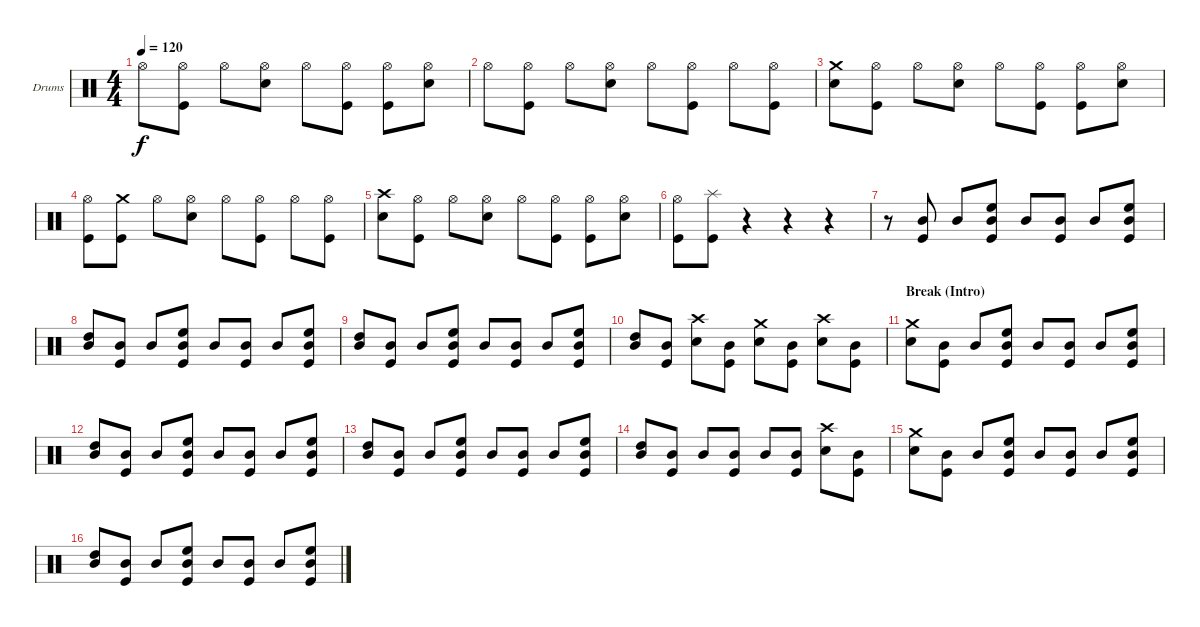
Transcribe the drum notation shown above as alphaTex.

\bracketExtendMode groupsimilarinstruments
\firstSystemTrackNameOrientation horizontal
\otherSystemsTrackNameOrientation horizontal
\track ("Drumkit" "Drums") {instrument percussion}
\staff {score}
\articulation defaults
\ts (4 4)
\tempo 120
\clef neutral
\ks c "Hi-Hat (open)".8{dy f}
("Hi-Hat (open)" "Kick (hit)").8 "Hi-Hat (open)".8 ("Hi-Hat (open)" "Snare (hit) 2").8 "Hi-Hat (open)".8 ("Hi-Hat (open)" "Kick (hit)").8 ("Hi-Hat (open)" "Kick (hit)").8 ("Hi-Hat (open)" "Snare (hit) 2").8 |
"Hi-Hat (open)".8 ("Hi-Hat (open)" "Kick (hit)").8 "Hi-Hat (open)".8 ("Hi-Hat (open)" "Snare (hit) 2").8 "Hi-Hat (open)".8 ("Hi-Hat (open)" "Kick (hit)").8 "Hi-Hat (open)".8 ("Hi-Hat (open)" "Kick (hit)").8 |
("Crash medium (hit)" "Snare (hit) 2").8 ("Hi-Hat (open)" "Kick (hit)").8 "Hi-Hat (open)".8 ("Hi-Hat (open)" "Snare (hit) 2").8 "Hi-Hat (open)".8 ("Hi-Hat (open)" "Kick (hit)").8 ("Hi-Hat (open)" "Kick (hit)").8 ("Hi-Hat (open)" "Snare (hit) 2").8 |
("Hi-Hat (open)" "Kick (hit)").8 ("Crash medium (hit)" "Kick (hit)").8 "Hi-Hat (open)".8 ("Hi-Hat (open)" "Snare (hit) 2").8 "Hi-Hat (open)".8 ("Hi-Hat (open)" "Kick (hit)").8 "Hi-Hat (open)".8 ("Hi-Hat (open)" "Kick (hit)").8 |
("Crash high (hit)" "Snare (hit) 2").8 ("Hi-Hat (open)" "Kick (hit)").8 "Hi-Hat (open)".8 ("Hi-Hat (open)" "Snare (hit) 2").8 "Hi-Hat (open)".8 ("Hi-Hat (open)" "Kick (hit)").8 ("Hi-Hat (open)" "Kick (hit)").8 ("Hi-Hat (open)" "Snare (hit) 2").8 |
("Hi-Hat (open)" "Kick (hit)").8 ("Splash (hit)" "Kick (hit)").8 r.4 r.4 r.4 |
r.8 ("Mid Tom (hit)" "Kick (hit)").8 "Mid Tom (hit)".8 ("High Floor Tom (hit)" "Mid Tom (hit)" "Kick (hit)").8 "Mid Tom (hit)".8 ("Mid Tom (hit)" "Kick (hit)").8 "Mid Tom (hit)".8 ("High Floor Tom (hit)" "Mid Tom (hit)" "Kick (hit)").8 |
("High Tom (hit)" "Mid Tom (hit)").8 ("Mid Tom (hit)" "Kick (hit)").8 "Mid Tom (hit)".8 ("High Floor Tom (hit)" "Mid Tom (hit)" "Kick (hit)").8 "Mid Tom (hit)".8 ("Mid Tom (hit)" "Kick (hit)").8 "Mid Tom (hit)".8 ("High Floor Tom (hit)" "Mid Tom (hit)" "Kick (hit)").8 |
("High Tom (hit)" "Mid Tom (hit)").8 ("Mid Tom (hit)" "Kick (hit)").8 "Mid Tom (hit)".8 ("High Floor Tom (hit)" "Mid Tom (hit)" "Kick (hit)").8 "Mid Tom (hit)".8 ("Mid Tom (hit)" "Kick (hit)").8 "Mid Tom (hit)".8 ("High Floor Tom (hit)" "Mid Tom (hit)" "Kick (hit)").8 |
("High Tom (hit)" "Mid Tom (hit)").8 ("Mid Tom (hit)" "Kick (hit)").8 ("Crash high (hit)" "Snare (hit) 2").8 ("Mid Tom (hit)" "Kick (hit)").8 ("Crash medium (hit)" "Snare (hit) 2").8 ("Mid Tom (hit)" "Kick (hit)").8 ("Crash high (hit)" "Snare (hit) 2").8 ("Mid Tom (hit)" "Kick (hit)").8 |
\section ("" "Break (Intro)")
("Crash medium (hit)" "Snare (hit) 2").8 ("Mid Tom (hit)" "Kick (hit)").8 "Mid Tom (hit)".8 ("High Floor Tom (hit)" "Mid Tom (hit)" "Kick (hit)").8 "Mid Tom (hit)".8 ("Mid Tom (hit)" "Kick (hit)").8 "Mid Tom (hit)".8 ("High Floor Tom (hit)" "Mid Tom (hit)" "Kick (hit)").8 |
("High Tom (hit)" "Mid Tom (hit)").8 ("Mid Tom (hit)" "Kick (hit)").8 "Mid Tom (hit)".8 ("High Floor Tom (hit)" "Mid Tom (hit)" "Kick (hit)").8 "Mid Tom (hit)".8 ("Mid Tom (hit)" "Kick (hit)").8 "Mid Tom (hit)".8 ("High Floor Tom (hit)" "Mid Tom (hit)" "Kick (hit)").8 |
("High Tom (hit)" "Mid Tom (hit)").8 ("Mid Tom (hit)" "Kick (hit)").8 "Mid Tom (hit)".8 ("High Floor Tom (hit)" "Mid Tom (hit)" "Kick (hit)").8 "Mid Tom (hit)".8 ("Mid Tom (hit)" "Kick (hit)").8 "Mid Tom (hit)".8 ("High Floor Tom (hit)" "Mid Tom (hit)" "Kick (hit)").8 |
("High Tom (hit)" "Mid Tom (hit)").8 ("Mid Tom (hit)" "Kick (hit)").8 "Mid Tom (hit)".8 ("Mid Tom (hit)" "Kick (hit)").8 "Mid Tom (hit)".8 ("Mid Tom (hit)" "Kick (hit)").8 ("Crash high (hit)" "Snare (hit) 2").8 ("Mid Tom (hit)" "Kick (hit)").8 |
("Crash medium (hit)" "Snare (hit) 2").8 ("Mid Tom (hit)" "Kick (hit)").8 "Mid Tom (hit)".8 ("High Floor Tom (hit)" "Mid Tom (hit)" "Kick (hit)").8 "Mid Tom (hit)".8 ("Mid Tom (hit)" "Kick (hit)").8 "Mid Tom (hit)".8 ("High Floor Tom (hit)" "Mid Tom (hit)" "Kick (hit)").8 |
("High Tom (hit)" "Mid Tom (hit)").8 ("Mid Tom (hit)" "Kick (hit)").8 "Mid Tom (hit)".8 ("High Floor Tom (hit)" "Mid Tom (hit)" "Kick (hit)").8 "Mid Tom (hit)".8 ("Mid Tom (hit)" "Kick (hit)").8 "Mid Tom (hit)".8 ("High Floor Tom (hit)" "Mid Tom (hit)" "Kick (hit)").8
